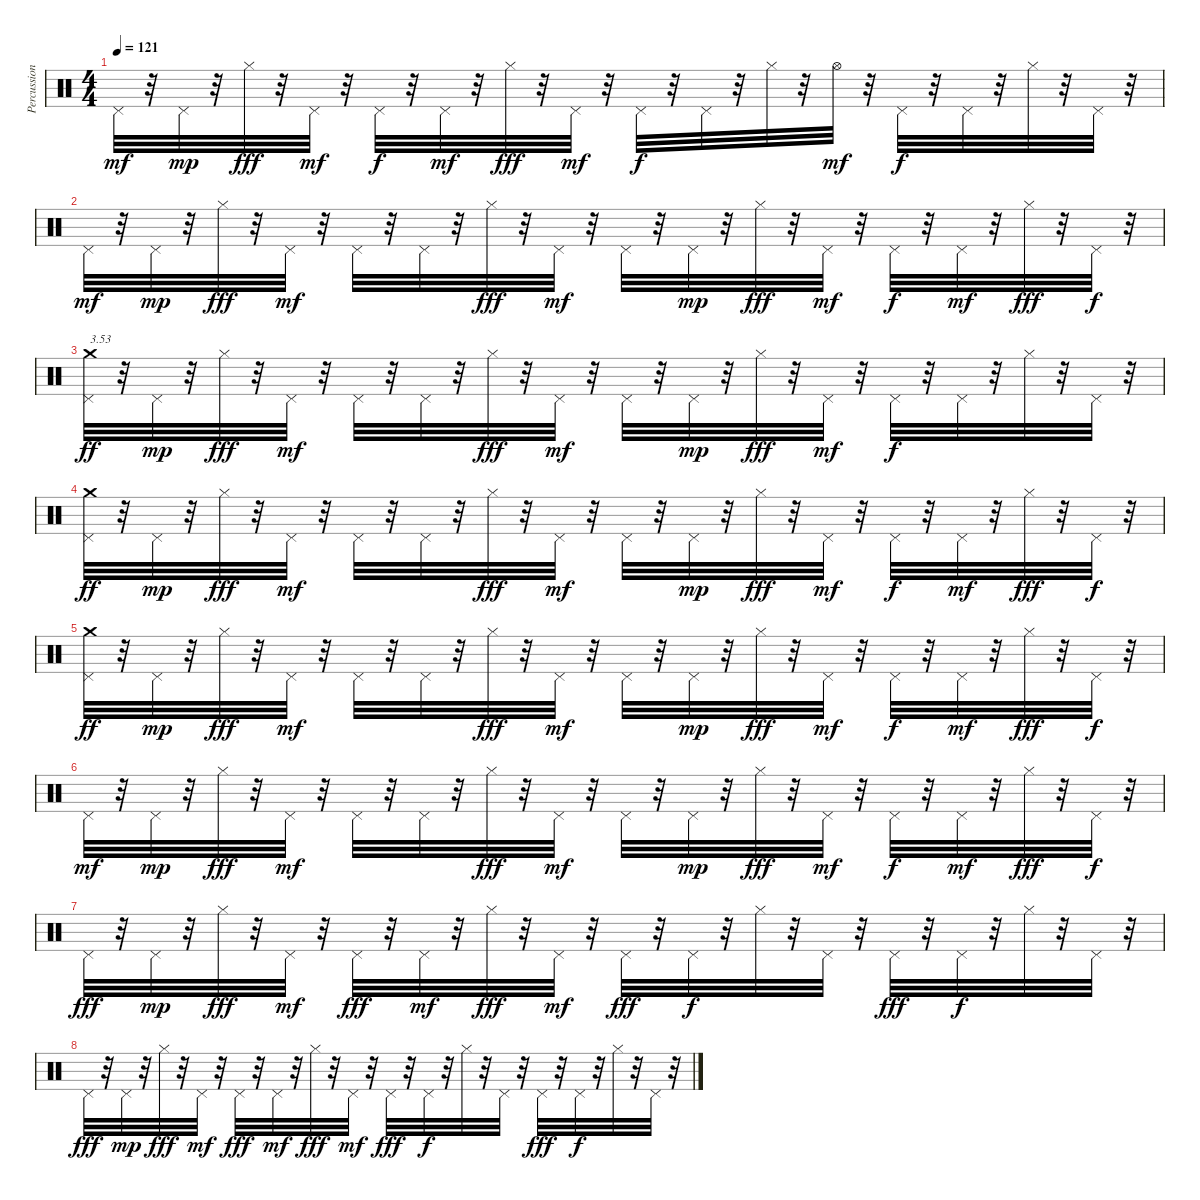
\track ("Percussions" "Percussion") {instrument percussion}
\staff {score}
\articulation defaults
\ts (4 4)
\tempo 121
\clef neutral
\ks c "Pedal Hi-Hat (hit)".32{dy mf}
r.32 "Pedal Hi-Hat (hit)".32{dy mp} r.32 "Hi-Hat (closed)".32{dy fff} r.32 "Pedal Hi-Hat (hit)".32{dy mf} r.32 "Pedal Hi-Hat (hit)".32{dy f} r.32 "Pedal Hi-Hat (hit)".32{dy mf} r.32 "Hi-Hat (closed)".32{dy fff} r.32 "Pedal Hi-Hat (hit)".32{dy mf} r.32 "Pedal Hi-Hat (hit)".32{dy f} r.32 "Pedal Hi-Hat (hit)".32 r.32 "Hi-Hat (closed)".32 r.32 "Hi-Hat (open)".32{dy mf} r.32 "Pedal Hi-Hat (hit)".32{dy f} r.32 "Pedal Hi-Hat (hit)".32 r.32 "Hi-Hat (closed)".32 r.32 "Pedal Hi-Hat (hit)".32 r.32 |
"Pedal Hi-Hat (hit)".32{dy mf} r.32 "Pedal Hi-Hat (hit)".32{dy mp} r.32 "Hi-Hat (closed)".32{dy fff} r.32 "Pedal Hi-Hat (hit)".32{dy mf} r.32 "Pedal Hi-Hat (hit)".32 r.32 "Pedal Hi-Hat (hit)".32 r.32 "Hi-Hat (closed)".32{dy fff} r.32 "Pedal Hi-Hat (hit)".32{dy mf} r.32 "Pedal Hi-Hat (hit)".32 r.32 "Pedal Hi-Hat (hit)".32{dy mp} r.32 "Hi-Hat (closed)".32{dy fff} r.32 "Pedal Hi-Hat (hit)".32{dy mf} r.32 "Pedal Hi-Hat (hit)".32{dy f} r.32 "Pedal Hi-Hat (hit)".32{dy mf} r.32 "Hi-Hat (closed)".32{dy fff} r.32 "Pedal Hi-Hat (hit)".32{dy f} r.32 |
("Pedal Hi-Hat (hit)" "Crash medium (hit)").32{txt "3.53" dy ff} r.32 "Pedal Hi-Hat (hit)".32{dy mp} r.32 "Hi-Hat (closed)".32{dy fff} r.32 "Pedal Hi-Hat (hit)".32{dy mf} r.32 "Pedal Hi-Hat (hit)".32 r.32 "Pedal Hi-Hat (hit)".32 r.32 "Hi-Hat (closed)".32{dy fff} r.32 "Pedal Hi-Hat (hit)".32{dy mf} r.32 "Pedal Hi-Hat (hit)".32 r.32 "Pedal Hi-Hat (hit)".32{dy mp} r.32 "Hi-Hat (closed)".32{dy fff} r.32 "Pedal Hi-Hat (hit)".32{dy mf} r.32 "Pedal Hi-Hat (hit)".32{dy f} r.32 "Pedal Hi-Hat (hit)".32 r.32 "Hi-Hat (closed)".32 r.32 "Pedal Hi-Hat (hit)".32 r.32 |
("Pedal Hi-Hat (hit)" "Crash medium (hit)").32{dy ff} r.32 "Pedal Hi-Hat (hit)".32{dy mp} r.32 "Hi-Hat (closed)".32{dy fff} r.32 "Pedal Hi-Hat (hit)".32{dy mf} r.32 "Pedal Hi-Hat (hit)".32 r.32 "Pedal Hi-Hat (hit)".32 r.32 "Hi-Hat (closed)".32{dy fff} r.32 "Pedal Hi-Hat (hit)".32{dy mf} r.32 "Pedal Hi-Hat (hit)".32 r.32 "Pedal Hi-Hat (hit)".32{dy mp} r.32 "Hi-Hat (closed)".32{dy fff} r.32 "Pedal Hi-Hat (hit)".32{dy mf} r.32 "Pedal Hi-Hat (hit)".32{dy f} r.32 "Pedal Hi-Hat (hit)".32{dy mf} r.32 "Hi-Hat (closed)".32{dy fff} r.32 "Pedal Hi-Hat (hit)".32{dy f} r.32 |
("Pedal Hi-Hat (hit)" "Crash medium (hit)").32{dy ff} r.32 "Pedal Hi-Hat (hit)".32{dy mp} r.32 "Hi-Hat (closed)".32{dy fff} r.32 "Pedal Hi-Hat (hit)".32{dy mf} r.32 "Pedal Hi-Hat (hit)".32 r.32 "Pedal Hi-Hat (hit)".32 r.32 "Hi-Hat (closed)".32{dy fff} r.32 "Pedal Hi-Hat (hit)".32{dy mf} r.32 "Pedal Hi-Hat (hit)".32 r.32 "Pedal Hi-Hat (hit)".32{dy mp} r.32 "Hi-Hat (closed)".32{dy fff} r.32 "Pedal Hi-Hat (hit)".32{dy mf} r.32 "Pedal Hi-Hat (hit)".32{dy f} r.32 "Pedal Hi-Hat (hit)".32{dy mf} r.32 "Hi-Hat (closed)".32{dy fff} r.32 "Pedal Hi-Hat (hit)".32{dy f} r.32 |
"Pedal Hi-Hat (hit)".32{dy mf} r.32 "Pedal Hi-Hat (hit)".32{dy mp} r.32 "Hi-Hat (closed)".32{dy fff} r.32 "Pedal Hi-Hat (hit)".32{dy mf} r.32 "Pedal Hi-Hat (hit)".32 r.32 "Pedal Hi-Hat (hit)".32 r.32 "Hi-Hat (closed)".32{dy fff} r.32 "Pedal Hi-Hat (hit)".32{dy mf} r.32 "Pedal Hi-Hat (hit)".32 r.32 "Pedal Hi-Hat (hit)".32{dy mp} r.32 "Hi-Hat (closed)".32{dy fff} r.32 "Pedal Hi-Hat (hit)".32{dy mf} r.32 "Pedal Hi-Hat (hit)".32{dy f} r.32 "Pedal Hi-Hat (hit)".32{dy mf} r.32 "Hi-Hat (closed)".32{dy fff} r.32 "Pedal Hi-Hat (hit)".32{dy f} r.32 |
"Pedal Hi-Hat (hit)".32{dy fff} r.32 "Pedal Hi-Hat (hit)".32{dy mp} r.32 "Hi-Hat (closed)".32{dy fff} r.32 "Pedal Hi-Hat (hit)".32{dy mf} r.32 "Pedal Hi-Hat (hit)".32{dy fff} r.32 "Pedal Hi-Hat (hit)".32{dy mf} r.32 "Hi-Hat (closed)".32{dy fff} r.32 "Pedal Hi-Hat (hit)".32{dy mf} r.32 "Pedal Hi-Hat (hit)".32{dy fff} r.32 "Pedal Hi-Hat (hit)".32{dy f} r.32 "Hi-Hat (closed)".32 r.32 "Pedal Hi-Hat (hit)".32 r.32 "Pedal Hi-Hat (hit)".32{dy fff} r.32 "Pedal Hi-Hat (hit)".32{dy f} r.32 "Hi-Hat (closed)".32 r.32 "Pedal Hi-Hat (hit)".32 r.32 |
"Pedal Hi-Hat (hit)".32{dy fff} r.32 "Pedal Hi-Hat (hit)".32{dy mp} r.32 "Hi-Hat (closed)".32{dy fff} r.32 "Pedal Hi-Hat (hit)".32{dy mf} r.32 "Pedal Hi-Hat (hit)".32{dy fff} r.32 "Pedal Hi-Hat (hit)".32{dy mf} r.32 "Hi-Hat (closed)".32{dy fff} r.32 "Pedal Hi-Hat (hit)".32{dy mf} r.32 "Pedal Hi-Hat (hit)".32{dy fff} r.32 "Pedal Hi-Hat (hit)".32{dy f} r.32 "Hi-Hat (closed)".32 r.32 "Pedal Hi-Hat (hit)".32 r.32 "Pedal Hi-Hat (hit)".32{dy fff} r.32 "Pedal Hi-Hat (hit)".32{dy f} r.32 "Hi-Hat (closed)".32 r.32 "Pedal Hi-Hat (hit)".32 r.32
